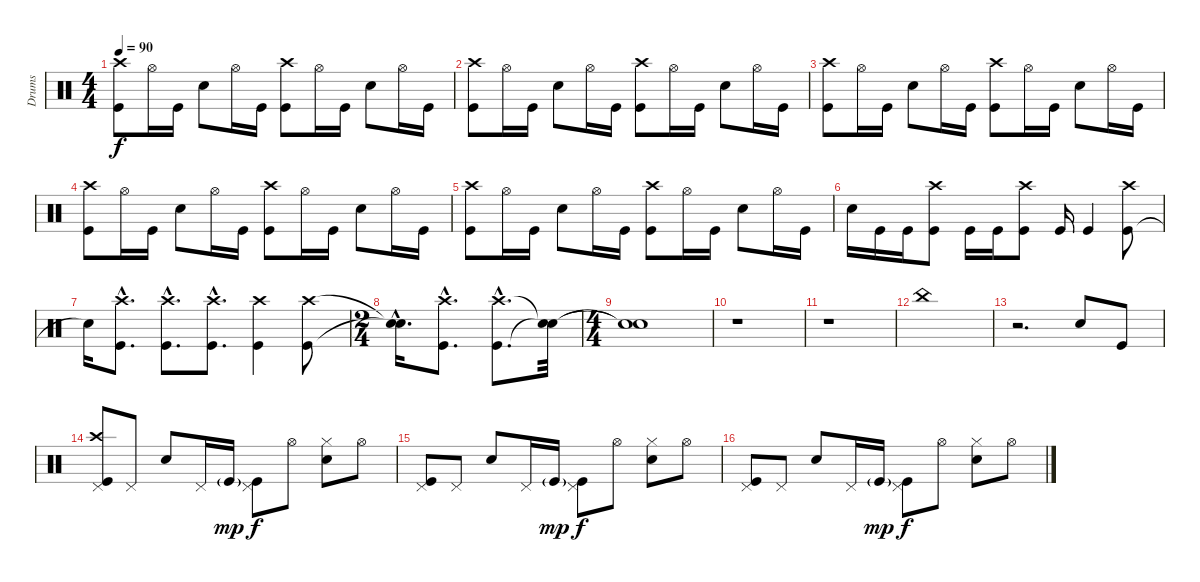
\track ("Drums" "Drums") {instrument percussion}
\staff {score}
\articulation defaults
\ts (4 4)
\tempo 90
\clef neutral
\ks c
("Kick (hit)" "Crash high (hit)").8{dy f} "Hi-Hat (open)".16 "Kick (hit)".16 "Snare (hit) 2".8 "Hi-Hat (open)".16 "Kick (hit)".16 ("Kick (hit)" "Crash high (hit)").8 "Hi-Hat (open)".16 "Kick (hit)".16 "Snare (hit) 2".8 "Hi-Hat (open)".16 "Kick (hit)".16 |
("Kick (hit)" "Crash high (hit)").8 "Hi-Hat (open)".16 "Kick (hit)".16 "Snare (hit) 2".8 "Hi-Hat (open)".16 "Kick (hit)".16 ("Kick (hit)" "Crash high (hit)").8 "Hi-Hat (open)".16 "Kick (hit)".16 "Snare (hit) 2".8 "Hi-Hat (open)".16 "Kick (hit)".16 |
("Kick (hit)" "Crash high (hit)").8 "Hi-Hat (open)".16 "Kick (hit)".16 "Snare (hit) 2".8 "Hi-Hat (open)".16 "Kick (hit)".16 ("Kick (hit)" "Crash high (hit)").8 "Hi-Hat (open)".16 "Kick (hit)".16 "Snare (hit) 2".8 "Hi-Hat (open)".16 "Kick (hit)".16 |
("Kick (hit)" "Crash high (hit)").8 "Hi-Hat (open)".16 "Kick (hit)".16 "Snare (hit) 2".8 "Hi-Hat (open)".16 "Kick (hit)".16 ("Kick (hit)" "Crash high (hit)").8 "Hi-Hat (open)".16 "Kick (hit)".16 "Snare (hit) 2".8 "Hi-Hat (open)".16 "Kick (hit)".16 |
("Kick (hit)" "Crash high (hit)").8 "Hi-Hat (open)".16 "Kick (hit)".16 "Snare (hit) 2".8 "Hi-Hat (open)".16 "Kick (hit)".16 ("Kick (hit)" "Crash high (hit)").8 "Hi-Hat (open)".16 "Kick (hit)".16 "Snare (hit) 2".8 "Hi-Hat (open)".16 "Kick (hit)".16 |
"Snare (hit) 2".16 "Kick (hit)".16 "Kick (hit)".16 ("Kick (hit)" "Crash high (hit)").8 "Kick (hit)".16 "Kick (hit)".16 ("Kick (hit)" "Crash high (hit)").8 "Kick (hit)".16 "Kick (hit)".4 ("Kick (hit)" "Crash high (hit)").8 |
"Snare (hit)"{t}.16 ("Kick (hit)"{hac} "Crash high (hit)"{hac}).8{d} ("Kick (hit)"{hac} "Crash high (hit)"{hac}).8{d} ("Kick (hit)"{hac} "Crash high (hit)"{hac}).8{d} ("Kick (hit)" "Crash high (hit)").4 ("Kick (hit)" "Crash high (hit)").8 |
\ts (2 4)
("Snare (hit)"{hac t} "Snare (hit)"{hac t}).16{d} ("Kick (hit)"{hac} "Crash high (hit)"{hac}).8{d} ("Kick (hit)"{hac} "Crash high (hit)"{hac}).8{d} ("Snare (hit)"{t} "Snare (hit)"{t}).32 |
\ts (4 4)
("Snare (hit)"{t} "Snare (hit)"{t}).1 |
r.1 |
r.1 |
"China (hit)".1 |
r.2{d} "Snare (hit) 2".8 "Kick (hit)".8 |
("Kick (hit)" "Pedal Hi-Hat (hit)" "Crash high (hit)").8 "Pedal Hi-Hat (hit)".8 "Snare (hit) 2".8 "Pedal Hi-Hat (hit)".16 "Kick (hit)"{g}.16{dy mp} ("Kick (hit)" "Pedal Hi-Hat (hit)").8{dy f} "Hi-Hat (open)".8 ("Snare (hit) 2" "Hi-Hat (closed)").8 "Hi-Hat (open)".8 |
("Kick (hit)" "Pedal Hi-Hat (hit)").8 "Pedal Hi-Hat (hit)".8 "Snare (hit) 2".8 "Pedal Hi-Hat (hit)".16 "Kick (hit)"{g}.16{dy mp} ("Kick (hit)" "Pedal Hi-Hat (hit)").8{dy f} "Hi-Hat (open)".8 ("Snare (hit) 2" "Hi-Hat (closed)").8 "Hi-Hat (open)".8 |
("Kick (hit)" "Pedal Hi-Hat (hit)").8 "Pedal Hi-Hat (hit)".8 "Snare (hit) 2".8 "Pedal Hi-Hat (hit)".16 "Kick (hit)"{g}.16{dy mp} ("Kick (hit)" "Pedal Hi-Hat (hit)").8{dy f} "Hi-Hat (open)".8 ("Snare (hit) 2" "Hi-Hat (closed)").8 "Hi-Hat (open)".8
